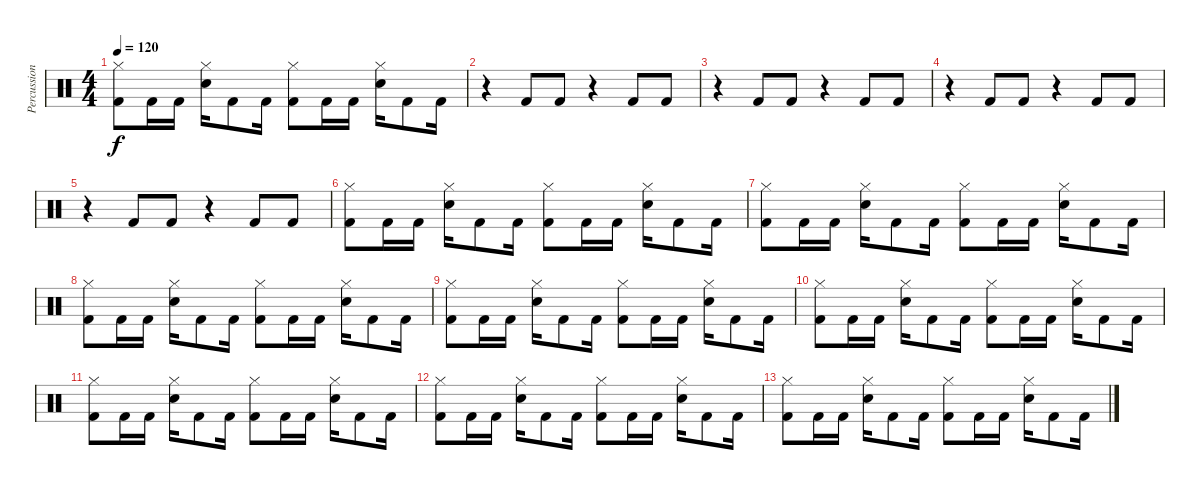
\track ("Percussion" "Percussion") {instrument percussion}
\staff {score}
\articulation defaults
\ts (4 4)
\tempo 120
\clef neutral
\ks c
("Hi-Hat (closed)" "Kick (hit) 2").8{dy f} "Kick (hit) 2".16 "Kick (hit) 2".16 ("Hi-Hat (closed)" "Electric Snare (hit)").16 "Kick (hit) 2".8 "Kick (hit) 2".16 ("Hi-Hat (closed)" "Kick (hit) 2").8 "Kick (hit) 2".16 "Kick (hit) 2".16 ("Hi-Hat (closed)" "Electric Snare (hit)").16 "Kick (hit) 2".8 "Kick (hit) 2".16 |
r.4 "Kick (hit) 2".8 "Kick (hit) 2".8 r.4 "Kick (hit) 2".8 "Kick (hit) 2".8 |
r.4 "Kick (hit) 2".8 "Kick (hit) 2".8 r.4 "Kick (hit) 2".8 "Kick (hit) 2".8 |
r.4 "Kick (hit) 2".8 "Kick (hit) 2".8 r.4 "Kick (hit) 2".8 "Kick (hit) 2".8 |
r.4 "Kick (hit) 2".8 "Kick (hit) 2".8 r.4 "Kick (hit) 2".8 "Kick (hit) 2".8 |
("Hi-Hat (closed)" "Kick (hit) 2").8 "Kick (hit) 2".16 "Kick (hit) 2".16 ("Hi-Hat (closed)" "Electric Snare (hit)").16 "Kick (hit) 2".8 "Kick (hit) 2".16 ("Hi-Hat (closed)" "Kick (hit) 2").8 "Kick (hit) 2".16 "Kick (hit) 2".16 ("Hi-Hat (closed)" "Electric Snare (hit)").16 "Kick (hit) 2".8 "Kick (hit) 2".16 |
("Hi-Hat (closed)" "Kick (hit) 2").8 "Kick (hit) 2".16 "Kick (hit) 2".16 ("Hi-Hat (closed)" "Electric Snare (hit)").16 "Kick (hit) 2".8 "Kick (hit) 2".16 ("Hi-Hat (closed)" "Kick (hit) 2").8 "Kick (hit) 2".16 "Kick (hit) 2".16 ("Hi-Hat (closed)" "Electric Snare (hit)").16 "Kick (hit) 2".8 "Kick (hit) 2".16 |
("Hi-Hat (closed)" "Kick (hit) 2").8 "Kick (hit) 2".16 "Kick (hit) 2".16 ("Hi-Hat (closed)" "Electric Snare (hit)").16 "Kick (hit) 2".8 "Kick (hit) 2".16 ("Hi-Hat (closed)" "Kick (hit) 2").8 "Kick (hit) 2".16 "Kick (hit) 2".16 ("Hi-Hat (closed)" "Electric Snare (hit)").16 "Kick (hit) 2".8 "Kick (hit) 2".16 |
("Hi-Hat (closed)" "Kick (hit) 2").8 "Kick (hit) 2".16 "Kick (hit) 2".16 ("Hi-Hat (closed)" "Electric Snare (hit)").16 "Kick (hit) 2".8 "Kick (hit) 2".16 ("Hi-Hat (closed)" "Kick (hit) 2").8 "Kick (hit) 2".16 "Kick (hit) 2".16 ("Hi-Hat (closed)" "Electric Snare (hit)").16 "Kick (hit) 2".8 "Kick (hit) 2".16 |
("Hi-Hat (closed)" "Kick (hit) 2").8 "Kick (hit) 2".16 "Kick (hit) 2".16 ("Hi-Hat (closed)" "Electric Snare (hit)").16 "Kick (hit) 2".8 "Kick (hit) 2".16 ("Hi-Hat (closed)" "Kick (hit) 2").8 "Kick (hit) 2".16 "Kick (hit) 2".16 ("Hi-Hat (closed)" "Electric Snare (hit)").16 "Kick (hit) 2".8 "Kick (hit) 2".16 |
("Hi-Hat (closed)" "Kick (hit) 2").8 "Kick (hit) 2".16 "Kick (hit) 2".16 ("Hi-Hat (closed)" "Electric Snare (hit)").16 "Kick (hit) 2".8 "Kick (hit) 2".16 ("Hi-Hat (closed)" "Kick (hit) 2").8 "Kick (hit) 2".16 "Kick (hit) 2".16 ("Hi-Hat (closed)" "Electric Snare (hit)").16 "Kick (hit) 2".8 "Kick (hit) 2".16 |
("Hi-Hat (closed)" "Kick (hit) 2").8 "Kick (hit) 2".16 "Kick (hit) 2".16 ("Hi-Hat (closed)" "Electric Snare (hit)").16 "Kick (hit) 2".8 "Kick (hit) 2".16 ("Hi-Hat (closed)" "Kick (hit) 2").8 "Kick (hit) 2".16 "Kick (hit) 2".16 ("Hi-Hat (closed)" "Electric Snare (hit)").16 "Kick (hit) 2".8 "Kick (hit) 2".16 |
("Hi-Hat (closed)" "Kick (hit) 2").8 "Kick (hit) 2".16 "Kick (hit) 2".16 ("Hi-Hat (closed)" "Electric Snare (hit)").16 "Kick (hit) 2".8 "Kick (hit) 2".16 ("Hi-Hat (closed)" "Kick (hit) 2").8 "Kick (hit) 2".16 "Kick (hit) 2".16 ("Hi-Hat (closed)" "Electric Snare (hit)").16 "Kick (hit) 2".8 "Kick (hit) 2".16
